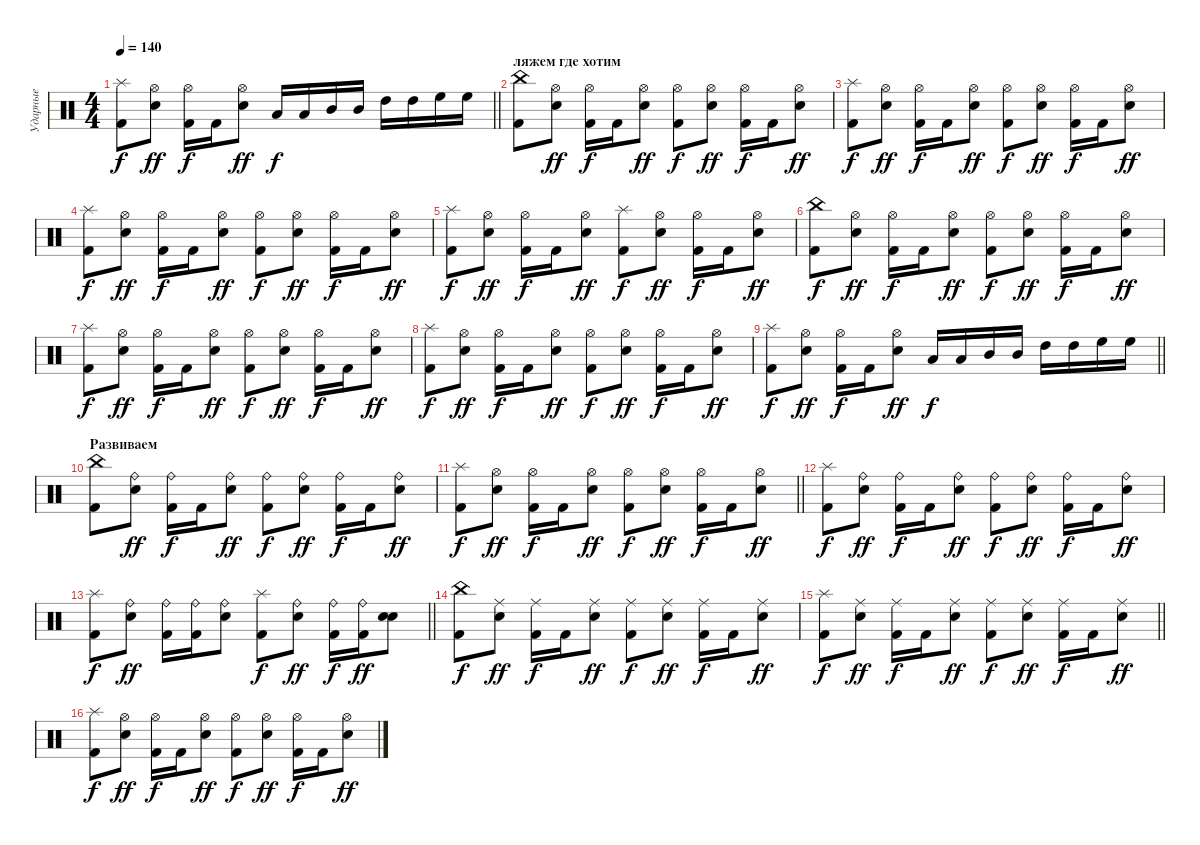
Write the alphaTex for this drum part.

\track ("Ударные" "Ударные") {instrument percussion}
\staff {score}
\articulation defaults
\ts (4 4)
\tempo 140
\clef neutral
\barLineRight lightlight
\ks c
("Splash (hit)" "Kick (hit) 2").8{dy f} ("Hi-Hat (open)" "Electric Snare (hit)").8{dy ff} ("Hi-Hat (open)" "Kick (hit) 2").16{dy f} "Kick (hit) 2".16 ("Hi-Hat (open)" "Electric Snare (hit)").8{dy ff} "Low Tom (hit)".16{dy f} "Low Tom (hit)".16 "Mid Tom (hit)".16 "Mid Tom (hit)".16 "High Tom (hit)".16 "High Tom (hit)".16 "High Floor Tom (hit)".16 "High Floor Tom (hit)".16 |
\section ("" "ляжем где хотим")
("China (hit)" "Kick (hit) 2").8 ("Hi-Hat (open)" "Electric Snare (hit)").8{dy ff} ("Hi-Hat (open)" "Kick (hit) 2").16{dy f} "Kick (hit) 2".16 ("Hi-Hat (open)" "Electric Snare (hit)").8{dy ff} ("Hi-Hat (open)" "Kick (hit) 2").8{dy f} ("Hi-Hat (open)" "Electric Snare (hit)").8{dy ff} ("Hi-Hat (open)" "Kick (hit) 2").16{dy f} "Kick (hit) 2".16 ("Hi-Hat (open)" "Electric Snare (hit)").8{dy ff} |
("Splash (hit)" "Kick (hit) 2").8{dy f} ("Hi-Hat (open)" "Electric Snare (hit)").8{dy ff} ("Hi-Hat (open)" "Kick (hit) 2").16{dy f} "Kick (hit) 2".16 ("Hi-Hat (open)" "Electric Snare (hit)").8{dy ff} ("Hi-Hat (open)" "Kick (hit) 2").8{dy f} ("Hi-Hat (open)" "Electric Snare (hit)").8{dy ff} ("Hi-Hat (open)" "Kick (hit) 2").16{dy f} "Kick (hit) 2".16 ("Hi-Hat (open)" "Electric Snare (hit)").8{dy ff} |
("Splash (hit)" "Kick (hit) 2").8{dy f} ("Hi-Hat (open)" "Electric Snare (hit)").8{dy ff} ("Hi-Hat (open)" "Kick (hit) 2").16{dy f} "Kick (hit) 2".16 ("Hi-Hat (open)" "Electric Snare (hit)").8{dy ff} ("Hi-Hat (open)" "Kick (hit) 2").8{dy f} ("Hi-Hat (open)" "Electric Snare (hit)").8{dy ff} ("Hi-Hat (open)" "Kick (hit) 2").16{dy f} "Kick (hit) 2".16 ("Hi-Hat (open)" "Electric Snare (hit)").8{dy ff} |
("Splash (hit)" "Kick (hit) 2").8{dy f} ("Hi-Hat (open)" "Electric Snare (hit)").8{dy ff} ("Hi-Hat (open)" "Kick (hit) 2").16{dy f} "Kick (hit) 2".16 ("Hi-Hat (open)" "Electric Snare (hit)").8{dy ff} ("Splash (hit)" "Kick (hit) 2").8{dy f} ("Hi-Hat (open)" "Electric Snare (hit)").8{dy ff} ("Hi-Hat (open)" "Kick (hit) 2").16{dy f} "Kick (hit) 2".16 ("Hi-Hat (open)" "Electric Snare (hit)").8{dy ff} |
("China (hit)" "Kick (hit) 2").8{dy f} ("Hi-Hat (open)" "Electric Snare (hit)").8{dy ff} ("Hi-Hat (open)" "Kick (hit) 2").16{dy f} "Kick (hit) 2".16 ("Hi-Hat (open)" "Electric Snare (hit)").8{dy ff} ("Hi-Hat (open)" "Kick (hit) 2").8{dy f} ("Hi-Hat (open)" "Electric Snare (hit)").8{dy ff} ("Hi-Hat (open)" "Kick (hit) 2").16{dy f} "Kick (hit) 2".16 ("Hi-Hat (open)" "Electric Snare (hit)").8{dy ff} |
("Splash (hit)" "Kick (hit) 2").8{dy f} ("Hi-Hat (open)" "Electric Snare (hit)").8{dy ff} ("Hi-Hat (open)" "Kick (hit) 2").16{dy f} "Kick (hit) 2".16 ("Hi-Hat (open)" "Electric Snare (hit)").8{dy ff} ("Hi-Hat (open)" "Kick (hit) 2").8{dy f} ("Hi-Hat (open)" "Electric Snare (hit)").8{dy ff} ("Hi-Hat (open)" "Kick (hit) 2").16{dy f} "Kick (hit) 2".16 ("Hi-Hat (open)" "Electric Snare (hit)").8{dy ff} |
("Splash (hit)" "Kick (hit) 2").8{dy f} ("Hi-Hat (open)" "Electric Snare (hit)").8{dy ff} ("Hi-Hat (open)" "Kick (hit) 2").16{dy f} "Kick (hit) 2".16 ("Hi-Hat (open)" "Electric Snare (hit)").8{dy ff} ("Hi-Hat (open)" "Kick (hit) 2").8{dy f} ("Hi-Hat (open)" "Electric Snare (hit)").8{dy ff} ("Hi-Hat (open)" "Kick (hit) 2").16{dy f} "Kick (hit) 2".16 ("Hi-Hat (open)" "Electric Snare (hit)").8{dy ff} |
\barLineRight lightlight
("Splash (hit)" "Kick (hit) 2").8{dy f} ("Hi-Hat (open)" "Electric Snare (hit)").8{dy ff} ("Hi-Hat (open)" "Kick (hit) 2").16{dy f} "Kick (hit) 2".16 ("Hi-Hat (open)" "Electric Snare (hit)").8{dy ff} "Low Tom (hit)".16{dy f} "Low Tom (hit)".16 "Mid Tom (hit)".16 "Mid Tom (hit)".16 "High Tom (hit)".16 "High Tom (hit)".16 "High Floor Tom (hit)".16 "High Floor Tom (hit)".16 |
\section ("" "Развиваем")
("China (hit)" "Kick (hit) 2").8 ("Ride (bell)" "Electric Snare (hit)").8{dy ff} ("Ride (bell)" "Kick (hit) 2").16{dy f} "Kick (hit) 2".16 ("Ride (bell)" "Electric Snare (hit)").8{dy ff} ("Ride (bell)" "Kick (hit) 2").8{dy f} ("Ride (bell)" "Electric Snare (hit)").8{dy ff} ("Ride (bell)" "Kick (hit) 2").16{dy f} "Kick (hit) 2".16 ("Ride (bell)" "Electric Snare (hit)").8{dy ff} |
\barLineRight lightlight
("Splash (hit)" "Kick (hit) 2").8{dy f} ("Hi-Hat (open)" "Electric Snare (hit)").8{dy ff} ("Hi-Hat (open)" "Kick (hit) 2").16{dy f} "Kick (hit) 2".16 ("Hi-Hat (open)" "Electric Snare (hit)").8{dy ff} ("Hi-Hat (open)" "Kick (hit) 2").8{dy f} ("Hi-Hat (open)" "Electric Snare (hit)").8{dy ff} ("Hi-Hat (open)" "Kick (hit) 2").16{dy f} "Kick (hit) 2".16 ("Hi-Hat (open)" "Electric Snare (hit)").8{dy ff} |
("Splash (hit)" "Kick (hit) 2").8{dy f} ("Ride (bell)" "Electric Snare (hit)").8{dy ff} ("Ride (bell)" "Kick (hit) 2").16{dy f} "Kick (hit) 2".16 ("Ride (bell)" "Electric Snare (hit)").8{dy ff} ("Ride (bell)" "Kick (hit) 2").8{dy f} ("Ride (bell)" "Electric Snare (hit)").8{dy ff} ("Ride (bell)" "Kick (hit) 2").16{dy f} "Kick (hit) 2".16 ("Ride (bell)" "Electric Snare (hit)").8{dy ff} |
\barLineRight lightlight
("Splash (hit)" "Kick (hit) 2").8{dy f} ("Ride (bell)" "Electric Snare (hit)").8{dy ff} ("Ride (bell)" "Kick (hit) 2").16 ("Ride (bell)" "Kick (hit) 2").16 ("Ride (bell)" "Electric Snare (hit)").8 ("Splash (hit)" "Kick (hit) 2").8{dy f} ("Ride (bell)" "Electric Snare (hit)").8{dy ff} ("Ride (bell)" "Kick (hit) 2").16{dy f} ("Ride (bell)" "Kick (hit) 2").16{dy ff} ("Snare (hit)" "Electric Snare (hit)").8 |
("China (hit)" "Kick (hit) 2").8{dy f} ("Ride (middle)" "Electric Snare (hit)").8{dy ff} ("Ride (middle)" "Kick (hit) 2").16{dy f} "Kick (hit) 2".16 ("Ride (middle)" "Electric Snare (hit)").8{dy ff} ("Ride (middle)" "Kick (hit) 2").8{dy f} ("Ride (middle)" "Electric Snare (hit)").8{dy ff} ("Ride (middle)" "Kick (hit) 2").16{dy f} "Kick (hit) 2".16 ("Ride (middle)" "Electric Snare (hit)").8{dy ff} |
\barLineRight lightlight
("Splash (hit)" "Kick (hit) 2").8{dy f} ("Ride (middle)" "Electric Snare (hit)").8{dy ff} ("Ride (middle)" "Kick (hit) 2").16{dy f} "Kick (hit) 2".16 ("Ride (middle)" "Electric Snare (hit)").8{dy ff} ("Ride (middle)" "Kick (hit) 2").8{dy f} ("Ride (middle)" "Electric Snare (hit)").8{dy ff} ("Ride (middle)" "Kick (hit) 2").16{dy f} "Kick (hit) 2".16 ("Ride (middle)" "Electric Snare (hit)").8{dy ff} |
("Splash (hit)" "Kick (hit) 2").8{dy f} ("Hi-Hat (open)" "Electric Snare (hit)").8{dy ff} ("Hi-Hat (open)" "Kick (hit) 2").16{dy f} "Kick (hit) 2".16 ("Hi-Hat (open)" "Electric Snare (hit)").8{dy ff} ("Hi-Hat (open)" "Kick (hit) 2").8{dy f} ("Hi-Hat (open)" "Electric Snare (hit)").8{dy ff} ("Hi-Hat (open)" "Kick (hit) 2").16{dy f} "Kick (hit) 2".16 ("Hi-Hat (open)" "Electric Snare (hit)").8{dy ff}
